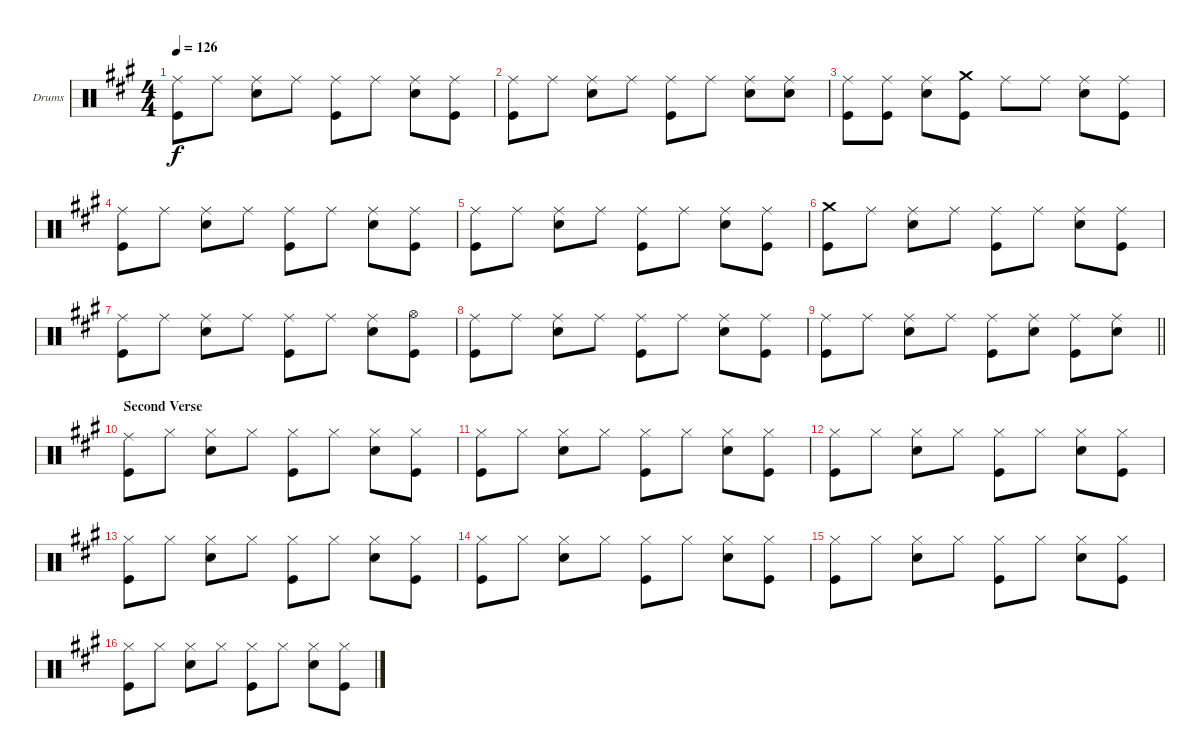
\bracketExtendMode groupsimilarinstruments
\firstSystemTrackNameOrientation horizontal
\otherSystemsTrackNameOrientation horizontal
\track ("Drumkit" "Drums") {instrument percussion}
\staff {score}
\articulation defaults
\ts (4 4)
\tempo 126
\clef neutral
\ks a
("Ride (middle)" "Kick (hit)").8{dy f} "Ride (middle)".8 ("Ride (middle)" "Snare (hit) 2").8 "Ride (middle)".8 ("Ride (middle)" "Kick (hit)").8 "Ride (middle)".8 ("Ride (middle)" "Snare (hit) 2").8 ("Ride (middle)" "Kick (hit)").8 |
("Ride (middle)" "Kick (hit)").8 "Ride (middle)".8 ("Ride (middle)" "Snare (hit) 2").8 "Ride (middle)".8 ("Ride (middle)" "Kick (hit)").8 "Ride (middle)".8 ("Ride (middle)" "Snare (hit) 2").8 ("Ride (middle)" "Snare (hit) 2").8 |
("Ride (middle)" "Kick (hit)").8 ("Ride (middle)" "Kick (hit)").8 ("Ride (middle)" "Snare (hit) 2").8 ("Crash medium (hit)" "Kick (hit)").8 "Ride (middle)".8 "Ride (middle)".8 ("Ride (middle)" "Snare (hit) 2").8 ("Ride (middle)" "Kick (hit)").8 |
("Ride (middle)" "Kick (hit)").8 "Ride (middle)".8 ("Ride (middle)" "Snare (hit) 2").8 "Ride (middle)".8 ("Ride (middle)" "Kick (hit)").8 "Ride (middle)".8 ("Ride (middle)" "Snare (hit) 2").8 ("Ride (middle)" "Kick (hit)").8 |
("Ride (middle)" "Kick (hit)").8 "Ride (middle)".8 ("Ride (middle)" "Snare (hit) 2").8 "Ride (middle)".8 ("Ride (middle)" "Kick (hit)").8 "Ride (middle)".8 ("Ride (middle)" "Snare (hit) 2").8 ("Ride (middle)" "Kick (hit)").8 |
("Crash medium (hit)" "Kick (hit)").8 "Ride (middle)".8 ("Ride (middle)" "Snare (hit) 2").8 "Ride (middle)".8 ("Ride (middle)" "Kick (hit)").8 "Ride (middle)".8 ("Ride (middle)" "Snare (hit) 2").8 ("Ride (middle)" "Kick (hit)").8 |
("Ride (middle)" "Kick (hit)").8 "Ride (middle)".8 ("Ride (middle)" "Snare (hit) 2").8 "Ride (middle)".8 ("Ride (middle)" "Kick (hit)").8 "Ride (middle)".8 ("Ride (middle)" "Snare (hit) 2").8 ("Hi-Hat (open)" "Kick (hit)").8 |
("Ride (middle)" "Kick (hit)").8 "Ride (middle)".8 ("Ride (middle)" "Snare (hit) 2").8 "Ride (middle)".8 ("Ride (middle)" "Kick (hit)").8 "Ride (middle)".8 ("Ride (middle)" "Snare (hit) 2").8 ("Ride (middle)" "Kick (hit)").8 |
\barLineRight lightlight
("Ride (middle)" "Kick (hit)").8 "Ride (middle)".8 ("Ride (middle)" "Snare (hit) 2").8 "Ride (middle)".8 ("Ride (middle)" "Kick (hit)").8 ("Ride (middle)" "Snare (hit) 2").8 ("Ride (middle)" "Kick (hit)").8 ("Ride (middle)" "Snare (hit) 2").8 |
\section ("" "Second Verse")
("Ride (middle)" "Kick (hit)").8 "Hi-Hat (closed)".8 ("Hi-Hat (closed)" "Snare (hit) 2").8 "Hi-Hat (closed)".8 ("Hi-Hat (closed)" "Kick (hit)").8 "Hi-Hat (closed)".8 ("Hi-Hat (closed)" "Snare (hit) 2").8 ("Hi-Hat (closed)" "Kick (hit)").8 |
("Hi-Hat (closed)" "Kick (hit)").8 "Hi-Hat (closed)".8 ("Hi-Hat (closed)" "Snare (hit) 2").8 "Hi-Hat (closed)".8 ("Hi-Hat (closed)" "Kick (hit)").8 "Hi-Hat (closed)".8 ("Hi-Hat (closed)" "Snare (hit) 2").8 ("Hi-Hat (closed)" "Kick (hit)").8 |
("Hi-Hat (closed)" "Kick (hit)").8 "Hi-Hat (closed)".8 ("Hi-Hat (closed)" "Snare (hit) 2").8 "Hi-Hat (closed)".8 ("Hi-Hat (closed)" "Kick (hit)").8 "Hi-Hat (closed)".8 ("Hi-Hat (closed)" "Snare (hit) 2").8 ("Hi-Hat (closed)" "Kick (hit)").8 |
("Hi-Hat (closed)" "Kick (hit)").8 "Hi-Hat (closed)".8 ("Hi-Hat (closed)" "Snare (hit) 2").8 "Hi-Hat (closed)".8 ("Hi-Hat (closed)" "Kick (hit)").8 "Hi-Hat (closed)".8 ("Hi-Hat (closed)" "Snare (hit) 2").8 ("Hi-Hat (closed)" "Kick (hit)").8 |
("Hi-Hat (closed)" "Kick (hit)").8 "Hi-Hat (closed)".8 ("Hi-Hat (closed)" "Snare (hit) 2").8 "Hi-Hat (closed)".8 ("Hi-Hat (closed)" "Kick (hit)").8 "Hi-Hat (closed)".8 ("Hi-Hat (closed)" "Snare (hit) 2").8 ("Hi-Hat (closed)" "Kick (hit)").8 |
("Hi-Hat (closed)" "Kick (hit)").8 "Hi-Hat (closed)".8 ("Hi-Hat (closed)" "Snare (hit) 2").8 "Hi-Hat (closed)".8 ("Hi-Hat (closed)" "Kick (hit)").8 "Hi-Hat (closed)".8 ("Hi-Hat (closed)" "Snare (hit) 2").8 ("Hi-Hat (closed)" "Kick (hit)").8 |
("Hi-Hat (closed)" "Kick (hit)").8 "Hi-Hat (closed)".8 ("Hi-Hat (closed)" "Snare (hit) 2").8 "Hi-Hat (closed)".8 ("Hi-Hat (closed)" "Kick (hit)").8 "Hi-Hat (closed)".8 ("Hi-Hat (closed)" "Snare (hit) 2").8 ("Hi-Hat (closed)" "Kick (hit)").8
